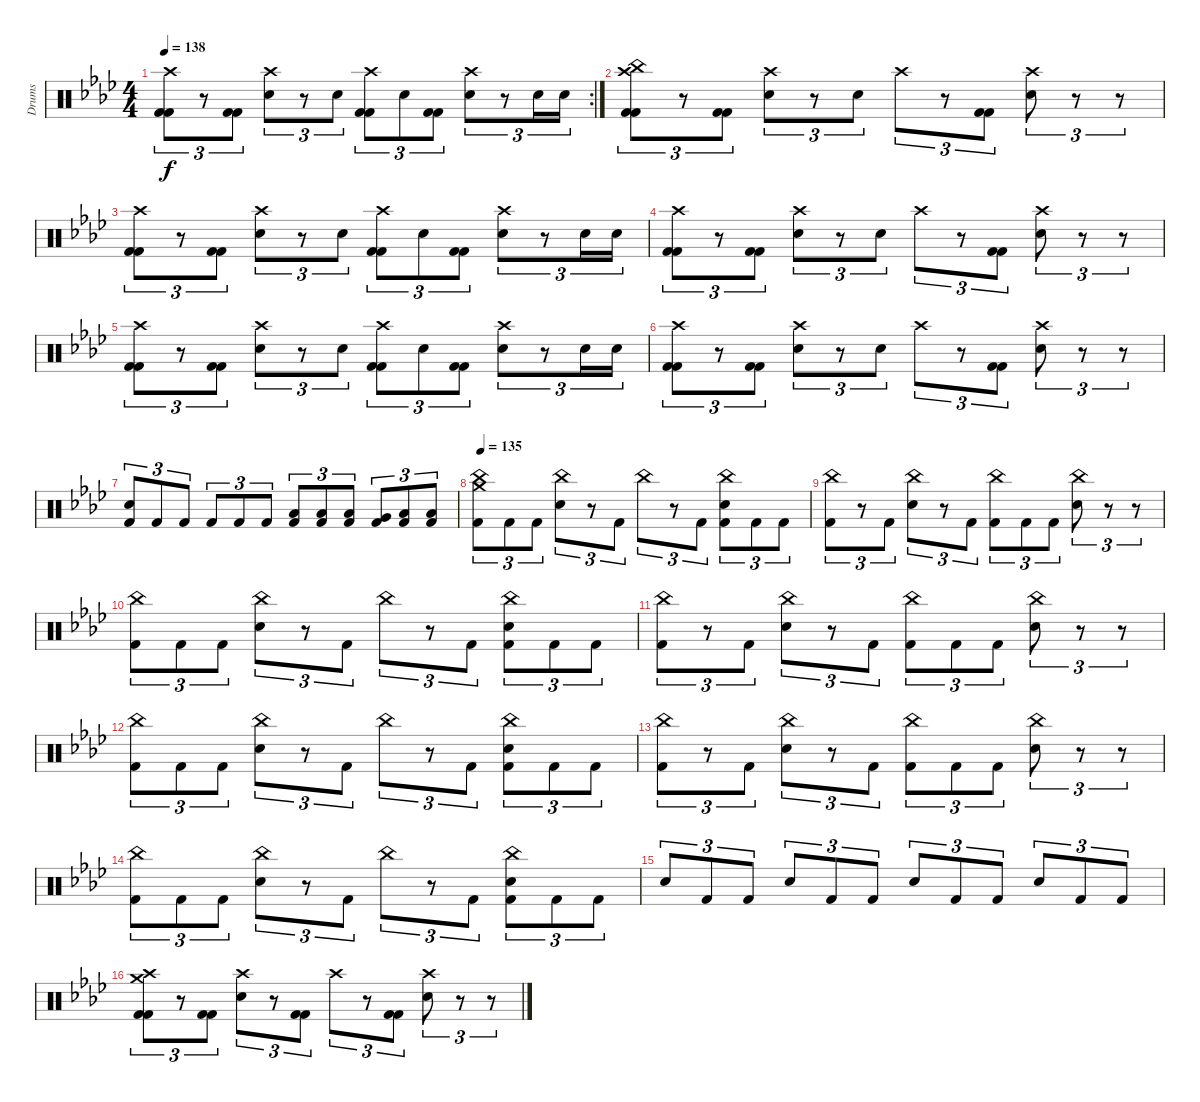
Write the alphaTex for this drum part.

\track ("Drums" "Drums") {instrument percussion}
\staff {score}
\articulation defaults
\rc 2
\ts (4 4)
\tempo 138
\clef neutral
\ks ab
("Crash high (hit)" "Kick (hit) 2" "Kick (hit) 2").8{tu (3 2) dy f} r.8{tu (3 2)} ("Kick (hit) 2" "Kick (hit) 2").8{tu (3 2)} ("Crash high (hit)" "Electric Snare (hit)").8{tu (3 2)} r.8{tu (3 2)} "Electric Snare (hit)".8{tu (3 2)} ("Crash high (hit)" "Kick (hit) 2" "Kick (hit) 2").8{tu (3 2)} "Electric Snare (hit)".8{tu (3 2)} ("Kick (hit) 2" "Kick (hit) 2").8{tu (3 2)} ("Crash high (hit)" "Electric Snare (hit)").8{tu (3 2)} r.8{tu (3 2)} "Electric Snare (hit)".16{tu (3 2)} "Electric Snare (hit)".16{tu (3 2)} |
("China (hit)" "Crash high (hit)" "Kick (hit) 2" "Kick (hit) 2").8{tu (3 2)} r.8{tu (3 2)} ("Kick (hit) 2" "Kick (hit) 2").8{tu (3 2)} ("Crash high (hit)" "Electric Snare (hit)").8{tu (3 2)} r.8{tu (3 2)} "Electric Snare (hit)".8{tu (3 2)} "Crash high (hit)".8{tu (3 2)} r.8{tu (3 2)} ("Kick (hit) 2" "Kick (hit) 2").8{tu (3 2)} ("Crash high (hit)" "Electric Snare (hit)").8{tu (3 2)} r.8{tu (3 2)} r.8{tu (3 2)} |
("Crash high (hit)" "Kick (hit) 2" "Kick (hit) 2").8{tu (3 2)} r.8{tu (3 2)} ("Kick (hit) 2" "Kick (hit) 2").8{tu (3 2)} ("Crash high (hit)" "Electric Snare (hit)").8{tu (3 2)} r.8{tu (3 2)} "Electric Snare (hit)".8{tu (3 2)} ("Crash high (hit)" "Kick (hit) 2" "Kick (hit) 2").8{tu (3 2)} "Electric Snare (hit)".8{tu (3 2)} ("Kick (hit) 2" "Kick (hit) 2").8{tu (3 2)} ("Crash high (hit)" "Electric Snare (hit)").8{tu (3 2)} r.8{tu (3 2)} "Electric Snare (hit)".16{tu (3 2)} "Electric Snare (hit)".16{tu (3 2)} |
("Crash high (hit)" "Kick (hit) 2" "Kick (hit) 2").8{tu (3 2)} r.8{tu (3 2)} ("Kick (hit) 2" "Kick (hit) 2").8{tu (3 2)} ("Crash high (hit)" "Electric Snare (hit)").8{tu (3 2)} r.8{tu (3 2)} "Electric Snare (hit)".8{tu (3 2)} "Crash high (hit)".8{tu (3 2)} r.8{tu (3 2)} ("Kick (hit) 2" "Kick (hit) 2").8{tu (3 2)} ("Crash high (hit)" "Electric Snare (hit)").8{tu (3 2)} r.8{tu (3 2)} r.8{tu (3 2)} |
("Crash high (hit)" "Kick (hit) 2" "Kick (hit) 2").8{tu (3 2)} r.8{tu (3 2)} ("Kick (hit) 2" "Kick (hit) 2").8{tu (3 2)} ("Crash high (hit)" "Electric Snare (hit)").8{tu (3 2)} r.8{tu (3 2)} "Electric Snare (hit)".8{tu (3 2)} ("Crash high (hit)" "Kick (hit) 2" "Kick (hit) 2").8{tu (3 2)} "Electric Snare (hit)".8{tu (3 2)} ("Kick (hit) 2" "Kick (hit) 2").8{tu (3 2)} ("Crash high (hit)" "Electric Snare (hit)").8{tu (3 2)} r.8{tu (3 2)} "Electric Snare (hit)".16{tu (3 2)} "Electric Snare (hit)".16{tu (3 2)} |
("Crash high (hit)" "Kick (hit) 2" "Kick (hit) 2").8{tu (3 2)} r.8{tu (3 2)} ("Kick (hit) 2" "Kick (hit) 2").8{tu (3 2)} ("Crash high (hit)" "Electric Snare (hit)").8{tu (3 2)} r.8{tu (3 2)} "Electric Snare (hit)".8{tu (3 2)} "Crash high (hit)".8{tu (3 2)} r.8{tu (3 2)} ("Kick (hit) 2" "Kick (hit) 2").8{tu (3 2)} ("Crash high (hit)" "Electric Snare (hit)").8{tu (3 2)} r.8{tu (3 2)} r.8{tu (3 2)} |
("Snare (hit)" "Kick (hit) 2").8{tu (3 2)} "Kick (hit) 2".8{tu (3 2)} "Kick (hit) 2".8{tu (3 2)} "Kick (hit) 2".8{tu (3 2)} "Kick (hit) 2".8{tu (3 2)} "Kick (hit) 2".8{tu (3 2)} ("Low Tom (hit)" "Kick (hit) 2").8{tu (3 2)} ("Low Tom (hit)" "Kick (hit) 2").8{tu (3 2)} ("Low Tom (hit)" "Kick (hit) 2").8{tu (3 2)} ("Very Low Tom (hit)" "Kick (hit) 2").8{tu (3 2)} ("Low Tom (hit)" "Kick (hit) 2").8{tu (3 2)} ("Low Floor Tom (hit)" "Kick (hit) 2").8{tu (3 2)} |
\tempo 135
("Crash medium (hit)" "China (hit)" "Kick (hit) 2").8{tu (3 2)} "Kick (hit) 2".8{tu (3 2)} "Kick (hit) 2".8{tu (3 2)} ("China (hit)" "Electric Snare (hit)").8{tu (3 2)} r.8{tu (3 2)} "Kick (hit) 2".8{tu (3 2)} "China (hit)".8{tu (3 2)} r.8{tu (3 2)} "Kick (hit) 2".8{tu (3 2)} ("China (hit)" "Electric Snare (hit)" "Kick (hit) 2").8{tu (3 2)} "Kick (hit) 2".8{tu (3 2)} "Kick (hit) 2".8{tu (3 2)} |
("China (hit)" "Kick (hit) 2").8{tu (3 2)} r.8{tu (3 2)} "Kick (hit) 2".8{tu (3 2)} ("China (hit)" "Electric Snare (hit)").8{tu (3 2)} r.8{tu (3 2)} "Kick (hit) 2".8{tu (3 2)} ("China (hit)" "Kick (hit) 2").8{tu (3 2)} "Kick (hit) 2".8{tu (3 2)} "Kick (hit) 2".8{tu (3 2)} ("China (hit)" "Electric Snare (hit)").8{tu (3 2)} r.8{tu (3 2)} r.8{tu (3 2)} |
("China (hit)" "Kick (hit) 2").8{tu (3 2)} "Kick (hit) 2".8{tu (3 2)} "Kick (hit) 2".8{tu (3 2)} ("China (hit)" "Electric Snare (hit)").8{tu (3 2)} r.8{tu (3 2)} "Kick (hit) 2".8{tu (3 2)} "China (hit)".8{tu (3 2)} r.8{tu (3 2)} "Kick (hit) 2".8{tu (3 2)} ("China (hit)" "Electric Snare (hit)" "Kick (hit) 2").8{tu (3 2)} "Kick (hit) 2".8{tu (3 2)} "Kick (hit) 2".8{tu (3 2)} |
("China (hit)" "Kick (hit) 2").8{tu (3 2)} r.8{tu (3 2)} "Kick (hit) 2".8{tu (3 2)} ("China (hit)" "Electric Snare (hit)").8{tu (3 2)} r.8{tu (3 2)} "Kick (hit) 2".8{tu (3 2)} ("China (hit)" "Kick (hit) 2").8{tu (3 2)} "Kick (hit) 2".8{tu (3 2)} "Kick (hit) 2".8{tu (3 2)} ("China (hit)" "Electric Snare (hit)").8{tu (3 2)} r.8{tu (3 2)} r.8{tu (3 2)} |
("China (hit)" "Kick (hit) 2").8{tu (3 2)} "Kick (hit) 2".8{tu (3 2)} "Kick (hit) 2".8{tu (3 2)} ("China (hit)" "Electric Snare (hit)").8{tu (3 2)} r.8{tu (3 2)} "Kick (hit) 2".8{tu (3 2)} "China (hit)".8{tu (3 2)} r.8{tu (3 2)} "Kick (hit) 2".8{tu (3 2)} ("China (hit)" "Electric Snare (hit)" "Kick (hit) 2").8{tu (3 2)} "Kick (hit) 2".8{tu (3 2)} "Kick (hit) 2".8{tu (3 2)} |
("China (hit)" "Kick (hit) 2").8{tu (3 2)} r.8{tu (3 2)} "Kick (hit) 2".8{tu (3 2)} ("China (hit)" "Electric Snare (hit)").8{tu (3 2)} r.8{tu (3 2)} "Kick (hit) 2".8{tu (3 2)} ("China (hit)" "Kick (hit) 2").8{tu (3 2)} "Kick (hit) 2".8{tu (3 2)} "Kick (hit) 2".8{tu (3 2)} ("China (hit)" "Electric Snare (hit)").8{tu (3 2)} r.8{tu (3 2)} r.8{tu (3 2)} |
("China (hit)" "Kick (hit) 2").8{tu (3 2)} "Kick (hit) 2".8{tu (3 2)} "Kick (hit) 2".8{tu (3 2)} ("China (hit)" "Electric Snare (hit)").8{tu (3 2)} r.8{tu (3 2)} "Kick (hit) 2".8{tu (3 2)} "China (hit)".8{tu (3 2)} r.8{tu (3 2)} "Kick (hit) 2".8{tu (3 2)} ("China (hit)" "Electric Snare (hit)" "Kick (hit) 2").8{tu (3 2)} "Kick (hit) 2".8{tu (3 2)} "Kick (hit) 2".8{tu (3 2)} |
"Electric Snare (hit)".8{tu (3 2)} "Kick (hit) 2".8{tu (3 2)} "Kick (hit) 2".8{tu (3 2)} "Electric Snare (hit)".8{tu (3 2)} "Kick (hit) 2".8{tu (3 2)} "Kick (hit) 2".8{tu (3 2)} "Electric Snare (hit)".8{tu (3 2)} "Kick (hit) 2".8{tu (3 2)} "Kick (hit) 2".8{tu (3 2)} "Electric Snare (hit)".8{tu (3 2)} "Kick (hit) 2".8{tu (3 2)} "Kick (hit) 2".8{tu (3 2)} |
("Crash high (hit)" "Crash medium (hit)" "Kick (hit) 2" "Kick (hit) 2").8{tu (3 2)} r.8{tu (3 2)} ("Kick (hit) 2" "Kick (hit) 2").8{tu (3 2)} ("Crash high (hit)" "Electric Snare (hit)").8{tu (3 2)} r.8{tu (3 2)} ("Kick (hit) 2" "Kick (hit) 2").8{tu (3 2)} "Crash high (hit)".8{tu (3 2)} r.8{tu (3 2)} ("Kick (hit) 2" "Kick (hit) 2").8{tu (3 2)} ("Crash high (hit)" "Electric Snare (hit)").8{tu (3 2)} r.8{tu (3 2)} r.8{tu (3 2)}
